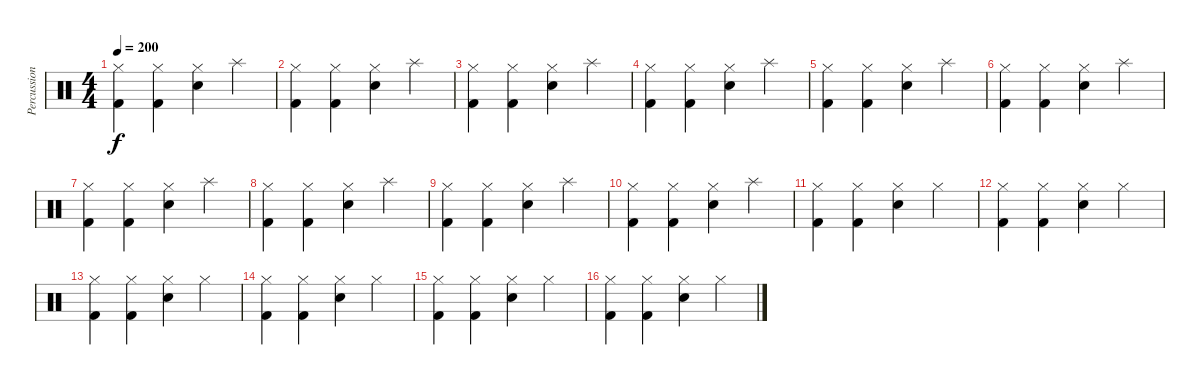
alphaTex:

\track ("Percussion" "Percussion") {instrument percussion}
\staff {score}
\articulation defaults
\ts (4 4)
\tempo 200
\clef neutral
\ks c
("Kick (hit) 2" "Hi-Hat (closed)").4{dy f} ("Kick (hit) 2" "Hi-Hat (closed)").4 ("Snare (hit) 2" "Hi-Hat (closed)").4 "Splash (hit)".4 |
("Kick (hit) 2" "Hi-Hat (closed)").4 ("Kick (hit) 2" "Hi-Hat (closed)").4 ("Snare (hit) 2" "Hi-Hat (closed)").4 "Splash (hit)".4 |
("Kick (hit) 2" "Hi-Hat (closed)").4 ("Kick (hit) 2" "Hi-Hat (closed)").4 ("Snare (hit) 2" "Hi-Hat (closed)").4 "Splash (hit)".4 |
("Kick (hit) 2" "Hi-Hat (closed)").4 ("Kick (hit) 2" "Hi-Hat (closed)").4 ("Snare (hit) 2" "Hi-Hat (closed)").4 "Splash (hit)".4 |
("Kick (hit) 2" "Hi-Hat (closed)").4 ("Kick (hit) 2" "Hi-Hat (closed)").4 ("Snare (hit) 2" "Hi-Hat (closed)").4 "Splash (hit)".4 |
("Kick (hit) 2" "Hi-Hat (closed)").4 ("Kick (hit) 2" "Hi-Hat (closed)").4 ("Snare (hit) 2" "Hi-Hat (closed)").4 "Splash (hit)".4 |
("Kick (hit) 2" "Hi-Hat (closed)").4 ("Kick (hit) 2" "Hi-Hat (closed)").4 ("Snare (hit) 2" "Hi-Hat (closed)").4 "Splash (hit)".4 |
("Kick (hit) 2" "Hi-Hat (closed)").4 ("Kick (hit) 2" "Hi-Hat (closed)").4 ("Snare (hit) 2" "Hi-Hat (closed)").4 "Splash (hit)".4 |
("Kick (hit) 2" "Hi-Hat (closed)").4 ("Kick (hit) 2" "Hi-Hat (closed)").4 ("Snare (hit) 2" "Hi-Hat (closed)").4 "Splash (hit)".4 |
("Kick (hit) 2" "Hi-Hat (closed)").4 ("Kick (hit) 2" "Hi-Hat (closed)").4 ("Snare (hit) 2" "Hi-Hat (closed)").4 "Splash (hit)".4 |
("Kick (hit) 2" "Hi-Hat (closed)").4 ("Kick (hit) 2" "Hi-Hat (closed)").4 ("Snare (hit) 2" "Hi-Hat (closed)").4 "Hi-Hat (closed)".4 |
("Kick (hit) 2" "Hi-Hat (closed)").4 ("Kick (hit) 2" "Hi-Hat (closed)").4 ("Snare (hit) 2" "Hi-Hat (closed)").4 "Hi-Hat (closed)".4 |
("Kick (hit) 2" "Hi-Hat (closed)").4 ("Kick (hit) 2" "Hi-Hat (closed)").4 ("Snare (hit) 2" "Hi-Hat (closed)").4 "Hi-Hat (closed)".4 |
("Kick (hit) 2" "Hi-Hat (closed)").4 ("Kick (hit) 2" "Hi-Hat (closed)").4 ("Snare (hit) 2" "Hi-Hat (closed)").4 "Hi-Hat (closed)".4 |
("Kick (hit) 2" "Hi-Hat (closed)").4 ("Kick (hit) 2" "Hi-Hat (closed)").4 ("Snare (hit) 2" "Hi-Hat (closed)").4 "Hi-Hat (closed)".4 |
("Kick (hit) 2" "Hi-Hat (closed)").4 ("Kick (hit) 2" "Hi-Hat (closed)").4 ("Snare (hit) 2" "Hi-Hat (closed)").4 "Hi-Hat (closed)".4
